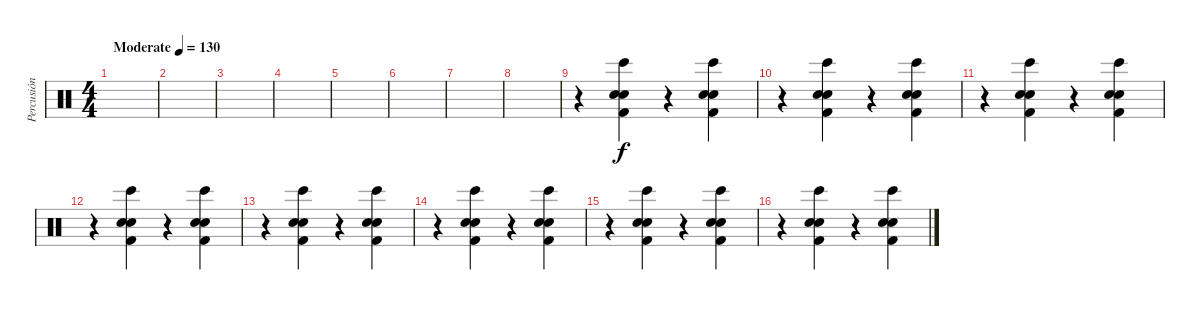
\track ("Percusión" "Percusión") {instrument percussion}
\staff {score}
\articulation defaults
\ts (4 4)
\tempo (130 "Moderate")
\clef neutral
\ks c
|
|
|
|
|
|
|
|
r.4 ("Kick (hit) 2" "Electric Snare (hit)" "Hand Clap (hit)" "Bongo High (hit)").4 r.4 ("Kick (hit) 2" "Electric Snare (hit)" "Hand Clap (hit)" "Bongo High (hit)").4 |
r.4 ("Kick (hit) 2" "Electric Snare (hit)" "Hand Clap (hit)" "Bongo High (hit)").4 r.4 ("Kick (hit) 2" "Electric Snare (hit)" "Hand Clap (hit)" "Bongo High (hit)").4 |
r.4 ("Kick (hit) 2" "Electric Snare (hit)" "Hand Clap (hit)" "Bongo High (hit)").4 r.4 ("Kick (hit) 2" "Electric Snare (hit)" "Hand Clap (hit)" "Bongo High (hit)").4 |
r.4 ("Kick (hit) 2" "Electric Snare (hit)" "Hand Clap (hit)" "Bongo High (hit)").4 r.4 ("Kick (hit) 2" "Electric Snare (hit)" "Hand Clap (hit)" "Bongo High (hit)").4 |
r.4 ("Kick (hit) 2" "Electric Snare (hit)" "Hand Clap (hit)" "Bongo High (hit)").4 r.4 ("Kick (hit) 2" "Electric Snare (hit)" "Hand Clap (hit)" "Bongo High (hit)").4 |
r.4 ("Kick (hit) 2" "Electric Snare (hit)" "Hand Clap (hit)" "Bongo High (hit)").4 r.4 ("Kick (hit) 2" "Electric Snare (hit)" "Hand Clap (hit)" "Bongo High (hit)").4 |
r.4 ("Kick (hit) 2" "Electric Snare (hit)" "Hand Clap (hit)" "Bongo High (hit)").4 r.4 ("Kick (hit) 2" "Electric Snare (hit)" "Hand Clap (hit)" "Bongo High (hit)").4 |
r.4 ("Kick (hit) 2" "Electric Snare (hit)" "Hand Clap (hit)" "Bongo High (hit)").4 r.4 ("Kick (hit) 2" "Electric Snare (hit)" "Hand Clap (hit)" "Bongo High (hit)").4
